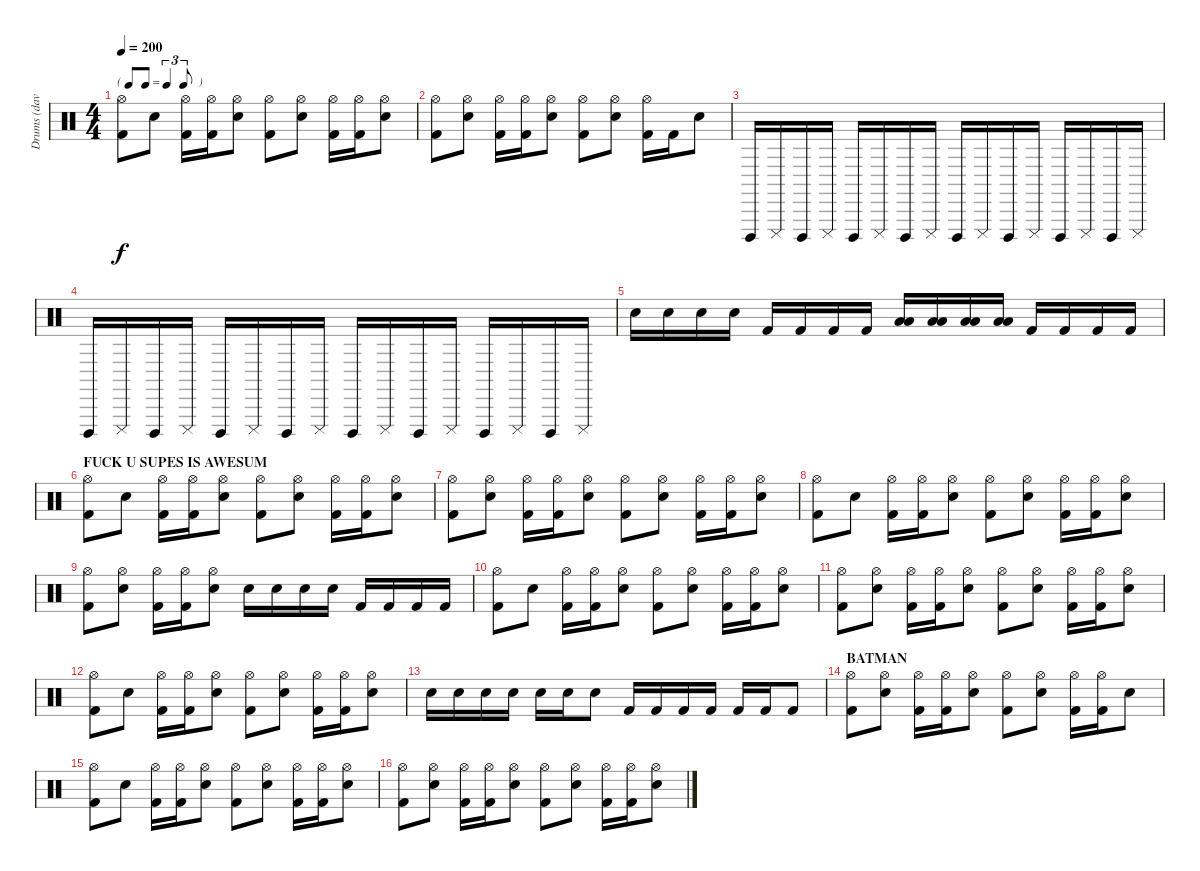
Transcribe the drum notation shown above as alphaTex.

\track ("Drums (dave)" "Drums (dav") {instrument percussion}
\staff {score}
\articulation defaults
\ts (4 4)
\tf triplet8th
\tempo 200
\clef neutral
\ks c
("Hi-Hat (open)" "Kick (hit) 2").8{dy f} "Snare (hit) 2".8 ("Hi-Hat (open)" "Kick (hit) 2").16 ("Hi-Hat (open)" "Kick (hit) 2").16 ("Hi-Hat (open)" "Snare (hit) 2").8 ("Hi-Hat (open)" "Kick (hit) 2").8 ("Hi-Hat (open)" "Snare (hit) 2").8 ("Hi-Hat (open)" "Kick (hit) 2").16 ("Hi-Hat (open)" "Kick (hit) 2").16 ("Hi-Hat (open)" "Snare (hit) 2").8 |
("Hi-Hat (open)" "Kick (hit) 2").8 ("Hi-Hat (open)" "Snare (hit) 2").8 ("Hi-Hat (open)" "Kick (hit) 2").16 ("Hi-Hat (open)" "Kick (hit) 2").16 ("Hi-Hat (open)" "Snare (hit) 2").8 ("Hi-Hat (open)" "Kick (hit) 2").8 ("Hi-Hat (open)" "Snare (hit) 2").8 ("Hi-Hat (open)" "Kick (hit) 2").16 "Kick (hit) 2".16 "Snare (hit) 2".8 |
"Cuica (open)".16 "Cuica (mute)".16 "Cuica (open)".16 "Cuica (mute)".16 "Cuica (open)".16 "Cuica (mute)".16 "Cuica (open)".16 "Cuica (mute)".16 "Cuica (open)".16 "Cuica (mute)".16 "Cuica (open)".16 "Cuica (mute)".16 "Cuica (open)".16 "Cuica (mute)".16 "Cuica (open)".16 "Cuica (mute)".16 |
"Cuica (open)".16 "Cuica (mute)".16 "Cuica (open)".16 "Cuica (mute)".16 "Cuica (open)".16 "Cuica (mute)".16 "Cuica (open)".16 "Cuica (mute)".16 "Cuica (open)".16 "Cuica (mute)".16 "Cuica (open)".16 "Cuica (mute)".16 "Cuica (open)".16 "Cuica (mute)".16 "Cuica (open)".16 "Cuica (mute)".16 |
"Snare (hit) 2".16 "Snare (hit) 2".16 "Snare (hit) 2".16 "Snare (hit) 2".16 "Kick (hit) 2".16 "Kick (hit) 2".16 "Kick (hit) 2".16 "Kick (hit) 2".16 ("Low Floor Tom (hit)" "Low Floor Tom (hit)").16 ("Low Floor Tom (hit)" "Low Floor Tom (hit)").16 ("Low Floor Tom (hit)" "Low Floor Tom (hit)").16 ("Low Floor Tom (hit)" "Low Floor Tom (hit)").16 "Kick (hit) 2".16 "Kick (hit) 2".16 "Kick (hit) 2".16 "Kick (hit) 2".16 |
\section ("" "FUCK U SUPES IS AWESUM")
("Hi-Hat (open)" "Kick (hit) 2").8 "Snare (hit) 2".8 ("Hi-Hat (open)" "Kick (hit) 2").16 ("Hi-Hat (open)" "Kick (hit) 2").16 ("Hi-Hat (open)" "Snare (hit) 2").8 ("Hi-Hat (open)" "Kick (hit) 2").8 ("Hi-Hat (open)" "Snare (hit) 2").8 ("Hi-Hat (open)" "Kick (hit) 2").16 ("Hi-Hat (open)" "Kick (hit) 2").16 ("Hi-Hat (open)" "Snare (hit) 2").8 |
("Hi-Hat (open)" "Kick (hit) 2").8 ("Hi-Hat (open)" "Snare (hit) 2").8 ("Hi-Hat (open)" "Kick (hit) 2").16 ("Hi-Hat (open)" "Kick (hit) 2").16 ("Hi-Hat (open)" "Snare (hit) 2").8 ("Hi-Hat (open)" "Kick (hit) 2").8 ("Hi-Hat (open)" "Snare (hit) 2").8 ("Hi-Hat (open)" "Kick (hit) 2").16 ("Hi-Hat (open)" "Kick (hit) 2").16 ("Hi-Hat (open)" "Snare (hit) 2").8 |
("Hi-Hat (open)" "Kick (hit) 2").8 "Snare (hit) 2".8 ("Hi-Hat (open)" "Kick (hit) 2").16 ("Hi-Hat (open)" "Kick (hit) 2").16 ("Hi-Hat (open)" "Snare (hit) 2").8 ("Hi-Hat (open)" "Kick (hit) 2").8 ("Hi-Hat (open)" "Snare (hit) 2").8 ("Hi-Hat (open)" "Kick (hit) 2").16 ("Hi-Hat (open)" "Kick (hit) 2").16 ("Hi-Hat (open)" "Snare (hit) 2").8 |
("Hi-Hat (open)" "Kick (hit) 2").8 ("Hi-Hat (open)" "Snare (hit) 2").8 ("Hi-Hat (open)" "Kick (hit) 2").16 ("Hi-Hat (open)" "Kick (hit) 2").16 ("Hi-Hat (open)" "Snare (hit) 2").8 "Snare (hit) 2".16 "Snare (hit) 2".16 "Snare (hit) 2".16 "Snare (hit) 2".16 "Kick (hit) 2".16 "Kick (hit) 2".16 "Kick (hit) 2".16 "Kick (hit) 2".16 |
("Hi-Hat (open)" "Kick (hit) 2").8 "Snare (hit) 2".8 ("Hi-Hat (open)" "Kick (hit) 2").16 ("Hi-Hat (open)" "Kick (hit) 2").16 ("Hi-Hat (open)" "Snare (hit) 2").8 ("Hi-Hat (open)" "Kick (hit) 2").8 ("Hi-Hat (open)" "Snare (hit) 2").8 ("Hi-Hat (open)" "Kick (hit) 2").16 ("Hi-Hat (open)" "Kick (hit) 2").16 ("Hi-Hat (open)" "Snare (hit) 2").8 |
("Hi-Hat (open)" "Kick (hit) 2").8 ("Hi-Hat (open)" "Snare (hit) 2").8 ("Hi-Hat (open)" "Kick (hit) 2").16 ("Hi-Hat (open)" "Kick (hit) 2").16 ("Hi-Hat (open)" "Snare (hit) 2").8 ("Hi-Hat (open)" "Kick (hit) 2").8 ("Hi-Hat (open)" "Snare (hit) 2").8 ("Hi-Hat (open)" "Kick (hit) 2").16 ("Hi-Hat (open)" "Kick (hit) 2").16 ("Hi-Hat (open)" "Snare (hit) 2").8 |
("Hi-Hat (open)" "Kick (hit) 2").8 "Snare (hit) 2".8 ("Hi-Hat (open)" "Kick (hit) 2").16 ("Hi-Hat (open)" "Kick (hit) 2").16 ("Hi-Hat (open)" "Snare (hit) 2").8 ("Hi-Hat (open)" "Kick (hit) 2").8 ("Hi-Hat (open)" "Snare (hit) 2").8 ("Hi-Hat (open)" "Kick (hit) 2").16 ("Hi-Hat (open)" "Kick (hit) 2").16 ("Hi-Hat (open)" "Snare (hit) 2").8 |
"Snare (hit) 2".16 "Snare (hit) 2".16 "Snare (hit) 2".16 "Snare (hit) 2".16 "Snare (hit) 2".16 "Snare (hit) 2".16 "Snare (hit) 2".8 "Kick (hit) 2".16 "Kick (hit) 2".16 "Kick (hit) 2".16 "Kick (hit) 2".16 "Kick (hit) 2".16 "Kick (hit) 2".16 "Kick (hit) 2".8 |
\section ("" "BATMAN")
("Hi-Hat (open)" "Kick (hit) 2").8 ("Hi-Hat (open)" "Snare (hit) 2").8 ("Hi-Hat (open)" "Kick (hit) 2").16 ("Hi-Hat (open)" "Kick (hit) 2").16 ("Hi-Hat (open)" "Snare (hit) 2").8 ("Hi-Hat (open)" "Kick (hit) 2").8 ("Hi-Hat (open)" "Snare (hit) 2").8 ("Hi-Hat (open)" "Kick (hit) 2").16 ("Hi-Hat (open)" "Kick (hit) 2").16 "Snare (hit) 2".8 |
("Hi-Hat (open)" "Kick (hit) 2").8 "Snare (hit) 2".8 ("Hi-Hat (open)" "Kick (hit) 2").16 ("Hi-Hat (open)" "Kick (hit) 2").16 ("Hi-Hat (open)" "Snare (hit) 2").8 ("Hi-Hat (open)" "Kick (hit) 2").8 ("Hi-Hat (open)" "Snare (hit) 2").8 ("Hi-Hat (open)" "Kick (hit) 2").16 ("Hi-Hat (open)" "Kick (hit) 2").16 ("Hi-Hat (open)" "Snare (hit) 2").8 |
("Hi-Hat (open)" "Kick (hit) 2").8 ("Hi-Hat (open)" "Snare (hit) 2").8 ("Hi-Hat (open)" "Kick (hit) 2").16 ("Hi-Hat (open)" "Kick (hit) 2").16 ("Hi-Hat (open)" "Snare (hit) 2").8 ("Hi-Hat (open)" "Kick (hit) 2").8 ("Hi-Hat (open)" "Snare (hit) 2").8 ("Hi-Hat (open)" "Kick (hit) 2").16 ("Hi-Hat (open)" "Kick (hit) 2").16 ("Hi-Hat (open)" "Snare (hit) 2").8
